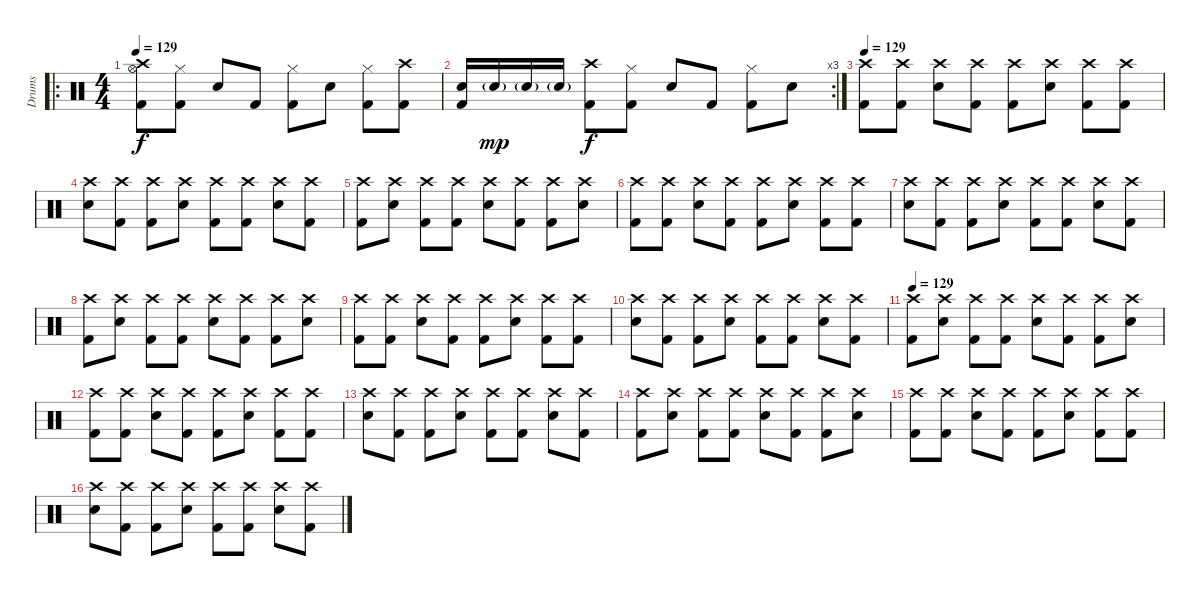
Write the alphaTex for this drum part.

\track ("Drums" "Drums") {instrument percussion}
\staff {score}
\articulation defaults
\ro
\ts (4 4)
\tempo 129
\clef neutral
\ks c
("Hi-Hat (open)" "Kick (hit) 2" "Crash high (hit)").8{dy f} ("Kick (hit) 2" "Hi-Hat (closed)").8 "Electric Snare (hit)".8 "Kick (hit) 2".8 ("Kick (hit) 2" "Hi-Hat (closed)").8 "Electric Snare (hit)".8 ("Kick (hit) 2" "Hi-Hat (closed)").8 ("Kick (hit) 2" "Crash high (hit)").8 |
\rc 3
("Kick (hit) 2" "Electric Snare (hit)").16 "Electric Snare (hit)"{g}.16{dy mp} "Electric Snare (hit)"{g}.16 "Electric Snare (hit)"{g}.16 ("Kick (hit) 2" "Crash high (hit)").8{dy f} ("Kick (hit) 2" "Hi-Hat (closed)").8 "Electric Snare (hit)".8 "Kick (hit) 2".8 ("Kick (hit) 2" "Hi-Hat (closed)").8 "Electric Snare (hit)".8 |
\tempo 129
("Crash high (hit)" "Kick (hit) 2").8 ("Crash high (hit)" "Kick (hit) 2").8 ("Crash high (hit)" "Electric Snare (hit)").8 ("Crash high (hit)" "Kick (hit) 2").8 ("Crash high (hit)" "Kick (hit) 2").8 ("Crash high (hit)" "Electric Snare (hit)").8 ("Crash high (hit)" "Kick (hit) 2").8 ("Crash high (hit)" "Kick (hit) 2").8 |
("Crash high (hit)" "Electric Snare (hit)").8 ("Crash high (hit)" "Kick (hit) 2").8 ("Crash high (hit)" "Kick (hit) 2").8 ("Crash high (hit)" "Electric Snare (hit)").8 ("Crash high (hit)" "Kick (hit) 2").8 ("Crash high (hit)" "Kick (hit) 2").8 ("Crash high (hit)" "Electric Snare (hit)").8 ("Crash high (hit)" "Kick (hit) 2").8 |
("Crash high (hit)" "Kick (hit) 2").8 ("Crash high (hit)" "Electric Snare (hit)").8 ("Crash high (hit)" "Kick (hit) 2").8 ("Crash high (hit)" "Kick (hit) 2").8 ("Crash high (hit)" "Electric Snare (hit)").8 ("Crash high (hit)" "Kick (hit) 2").8 ("Crash high (hit)" "Kick (hit) 2").8 ("Crash high (hit)" "Electric Snare (hit)").8 |
("Crash high (hit)" "Kick (hit) 2").8 ("Crash high (hit)" "Kick (hit) 2").8 ("Crash high (hit)" "Electric Snare (hit)").8 ("Crash high (hit)" "Kick (hit) 2").8 ("Crash high (hit)" "Kick (hit) 2").8 ("Crash high (hit)" "Electric Snare (hit)").8 ("Crash high (hit)" "Kick (hit) 2").8 ("Crash high (hit)" "Kick (hit) 2").8 |
("Crash high (hit)" "Electric Snare (hit)").8 ("Crash high (hit)" "Kick (hit) 2").8 ("Crash high (hit)" "Kick (hit) 2").8 ("Crash high (hit)" "Electric Snare (hit)").8 ("Crash high (hit)" "Kick (hit) 2").8 ("Crash high (hit)" "Kick (hit) 2").8 ("Crash high (hit)" "Electric Snare (hit)").8 ("Crash high (hit)" "Kick (hit) 2").8 |
("Crash high (hit)" "Kick (hit) 2").8 ("Crash high (hit)" "Electric Snare (hit)").8 ("Crash high (hit)" "Kick (hit) 2").8 ("Crash high (hit)" "Kick (hit) 2").8 ("Crash high (hit)" "Electric Snare (hit)").8 ("Crash high (hit)" "Kick (hit) 2").8 ("Crash high (hit)" "Kick (hit) 2").8 ("Crash high (hit)" "Electric Snare (hit)").8 |
("Crash high (hit)" "Kick (hit) 2").8 ("Crash high (hit)" "Kick (hit) 2").8 ("Crash high (hit)" "Electric Snare (hit)").8 ("Crash high (hit)" "Kick (hit) 2").8 ("Crash high (hit)" "Kick (hit) 2").8 ("Crash high (hit)" "Electric Snare (hit)").8 ("Crash high (hit)" "Kick (hit) 2").8 ("Crash high (hit)" "Kick (hit) 2").8 |
("Crash high (hit)" "Electric Snare (hit)").8 ("Crash high (hit)" "Kick (hit) 2").8 ("Crash high (hit)" "Kick (hit) 2").8 ("Crash high (hit)" "Electric Snare (hit)").8 ("Crash high (hit)" "Kick (hit) 2").8 ("Crash high (hit)" "Kick (hit) 2").8 ("Crash high (hit)" "Electric Snare (hit)").8 ("Crash high (hit)" "Kick (hit) 2").8 |
\tempo 129
("Crash high (hit)" "Kick (hit) 2").8 ("Crash high (hit)" "Electric Snare (hit)").8 ("Crash high (hit)" "Kick (hit) 2").8 ("Crash high (hit)" "Kick (hit) 2").8 ("Crash high (hit)" "Electric Snare (hit)").8 ("Crash high (hit)" "Kick (hit) 2").8 ("Crash high (hit)" "Kick (hit) 2").8 ("Crash high (hit)" "Electric Snare (hit)").8 |
("Crash high (hit)" "Kick (hit) 2").8 ("Crash high (hit)" "Kick (hit) 2").8 ("Crash high (hit)" "Electric Snare (hit)").8 ("Crash high (hit)" "Kick (hit) 2").8 ("Crash high (hit)" "Kick (hit) 2").8 ("Crash high (hit)" "Electric Snare (hit)").8 ("Crash high (hit)" "Kick (hit) 2").8 ("Crash high (hit)" "Kick (hit) 2").8 |
("Crash high (hit)" "Electric Snare (hit)").8 ("Crash high (hit)" "Kick (hit) 2").8 ("Crash high (hit)" "Kick (hit) 2").8 ("Crash high (hit)" "Electric Snare (hit)").8 ("Crash high (hit)" "Kick (hit) 2").8 ("Crash high (hit)" "Kick (hit) 2").8 ("Crash high (hit)" "Electric Snare (hit)").8 ("Crash high (hit)" "Kick (hit) 2").8 |
("Crash high (hit)" "Kick (hit) 2").8 ("Crash high (hit)" "Electric Snare (hit)").8 ("Crash high (hit)" "Kick (hit) 2").8 ("Crash high (hit)" "Kick (hit) 2").8 ("Crash high (hit)" "Electric Snare (hit)").8 ("Crash high (hit)" "Kick (hit) 2").8 ("Crash high (hit)" "Kick (hit) 2").8 ("Crash high (hit)" "Electric Snare (hit)").8 |
("Crash high (hit)" "Kick (hit) 2").8 ("Crash high (hit)" "Kick (hit) 2").8 ("Crash high (hit)" "Electric Snare (hit)").8 ("Crash high (hit)" "Kick (hit) 2").8 ("Crash high (hit)" "Kick (hit) 2").8 ("Crash high (hit)" "Electric Snare (hit)").8 ("Crash high (hit)" "Kick (hit) 2").8 ("Crash high (hit)" "Kick (hit) 2").8 |
("Crash high (hit)" "Electric Snare (hit)").8 ("Crash high (hit)" "Kick (hit) 2").8 ("Crash high (hit)" "Kick (hit) 2").8 ("Crash high (hit)" "Electric Snare (hit)").8 ("Crash high (hit)" "Kick (hit) 2").8 ("Crash high (hit)" "Kick (hit) 2").8 ("Crash high (hit)" "Electric Snare (hit)").8 ("Crash high (hit)" "Kick (hit) 2").8
